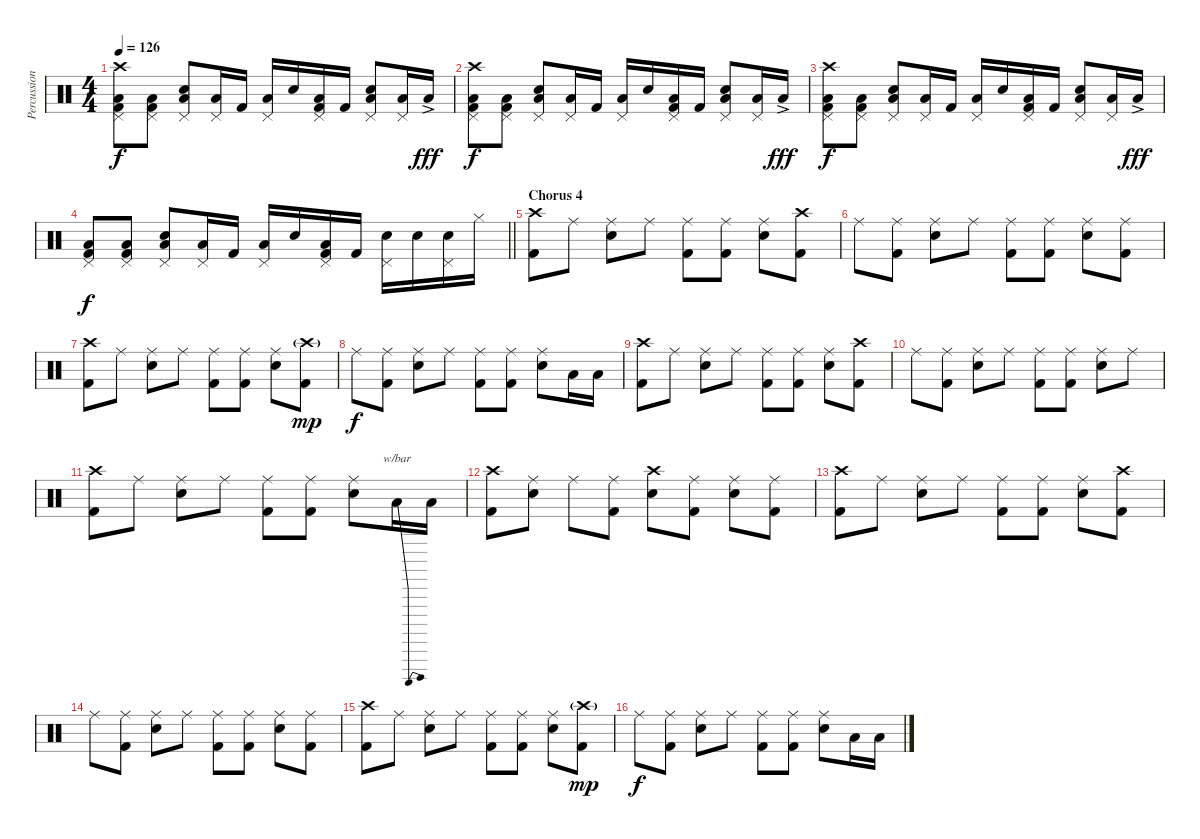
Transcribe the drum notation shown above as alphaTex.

\track ("Percussion" "Percussion") {instrument percussion}
\staff {score}
\articulation defaults
\ts (4 4)
\tempo 126
\clef neutral
\ks c
("Crash high (hit)" "Pedal Hi-Hat (hit)" "Low Floor Tom (hit)" "Kick (hit) 2").8{dy f} ("Pedal Hi-Hat (hit)" "Low Floor Tom (hit)" "Kick (hit) 2").8 ("Pedal Hi-Hat (hit)" "Snare (hit) 2" "Low Floor Tom (hit)").8 ("Pedal Hi-Hat (hit)" "Low Floor Tom (hit)").16 "Kick (hit) 2".16 ("Pedal Hi-Hat (hit)" "Low Floor Tom (hit)").16 "Snare (hit) 2".16 ("Pedal Hi-Hat (hit)" "Low Floor Tom (hit)" "Kick (hit) 2").16 "Kick (hit) 2".16 ("Pedal Hi-Hat (hit)" "Snare (hit) 2" "Low Floor Tom (hit)").8 ("Pedal Hi-Hat (hit)" "Low Floor Tom (hit)").16 "Low Floor Tom (hit)"{ac}.16{dy fff} |
("Crash high (hit)" "Pedal Hi-Hat (hit)" "Low Floor Tom (hit)" "Kick (hit) 2").8{dy f} ("Pedal Hi-Hat (hit)" "Low Floor Tom (hit)" "Kick (hit) 2").8 ("Pedal Hi-Hat (hit)" "Snare (hit) 2" "Low Floor Tom (hit)").8 ("Pedal Hi-Hat (hit)" "Low Floor Tom (hit)").16 "Kick (hit) 2".16 ("Pedal Hi-Hat (hit)" "Low Floor Tom (hit)").16 "Snare (hit) 2".16 ("Pedal Hi-Hat (hit)" "Low Floor Tom (hit)" "Kick (hit) 2").16 "Kick (hit) 2".16 ("Pedal Hi-Hat (hit)" "Snare (hit) 2" "Low Floor Tom (hit)").8 ("Pedal Hi-Hat (hit)" "Low Floor Tom (hit)").16 "Low Floor Tom (hit)"{ac}.16{dy fff} |
("Crash high (hit)" "Pedal Hi-Hat (hit)" "Low Floor Tom (hit)" "Kick (hit) 2").8{dy f} ("Pedal Hi-Hat (hit)" "Low Floor Tom (hit)" "Kick (hit) 2").8 ("Pedal Hi-Hat (hit)" "Snare (hit) 2" "Low Floor Tom (hit)").8 ("Pedal Hi-Hat (hit)" "Low Floor Tom (hit)").16 "Kick (hit) 2".16 ("Pedal Hi-Hat (hit)" "Low Floor Tom (hit)").16 "Snare (hit) 2".16 ("Pedal Hi-Hat (hit)" "Low Floor Tom (hit)" "Kick (hit) 2").16 "Kick (hit) 2".16 ("Pedal Hi-Hat (hit)" "Snare (hit) 2" "Low Floor Tom (hit)").8 ("Pedal Hi-Hat (hit)" "Low Floor Tom (hit)").16 "Low Floor Tom (hit)"{ac}.16{dy fff} |
\barLineRight lightlight
("Pedal Hi-Hat (hit)" "Low Floor Tom (hit)" "Kick (hit) 2").8{dy f} ("Pedal Hi-Hat (hit)" "Low Floor Tom (hit)" "Kick (hit) 2").8 ("Pedal Hi-Hat (hit)" "Snare (hit) 2" "Low Floor Tom (hit)").8 ("Pedal Hi-Hat (hit)" "Low Floor Tom (hit)").16 "Kick (hit) 2".16 ("Pedal Hi-Hat (hit)" "Low Floor Tom (hit)").16 "Snare (hit) 2".16 ("Pedal Hi-Hat (hit)" "Low Floor Tom (hit)" "Kick (hit) 2").16 "Kick (hit) 2".16 ("Pedal Hi-Hat (hit)" "Snare (hit) 2").16 "Snare (hit) 2".16 ("Pedal Hi-Hat (hit)" "Snare (hit) 2").16 "Hi-Hat (closed)".16 |
\section ("" "Chorus 4")
("Crash high (hit)" "Kick (hit) 2").8 "Ride (middle)".8 ("Ride (middle)" "Snare (hit) 2").8 "Ride (middle)".8 ("Ride (middle)" "Kick (hit) 2").8 ("Ride (middle)" "Kick (hit) 2").8 ("Ride (middle)" "Snare (hit) 2").8 ("Crash high (hit)" "Kick (hit) 2").8 |
"Ride (middle)".8 ("Ride (middle)" "Kick (hit) 2").8 ("Ride (middle)" "Snare (hit) 2").8 "Ride (middle)".8 ("Ride (middle)" "Kick (hit) 2").8 ("Ride (middle)" "Kick (hit) 2").8 ("Ride (middle)" "Snare (hit) 2").8 ("Ride (middle)" "Kick (hit) 2").8 |
("Crash high (hit)" "Kick (hit) 2").8 "Ride (middle)".8 ("Ride (middle)" "Snare (hit) 2").8 "Ride (middle)".8 ("Ride (middle)" "Kick (hit) 2").8 ("Ride (middle)" "Kick (hit) 2").8 ("Ride (middle)" "Snare (hit) 2").8 ("Crash high (hit)"{g} "Kick (hit) 2").8{dy mp} |
"Ride (middle)".8{dy f} ("Ride (middle)" "Kick (hit) 2").8 ("Ride (middle)" "Snare (hit) 2").8 "Ride (middle)".8 ("Ride (middle)" "Kick (hit) 2").8 ("Ride (middle)" "Kick (hit) 2").8 ("Ride (middle)" "Snare (hit) 2").8 "Low Floor Tom (hit)".16 "Low Floor Tom (hit)".16 |
("Crash high (hit)" "Kick (hit) 2").8 "Ride (middle)".8 ("Ride (middle)" "Snare (hit) 2").8 "Ride (middle)".8 ("Ride (middle)" "Kick (hit) 2").8 ("Ride (middle)" "Kick (hit) 2").8 ("Ride (middle)" "Snare (hit) 2").8 ("Crash high (hit)" "Kick (hit) 2").8 |
"Ride (middle)".8 ("Ride (middle)" "Kick (hit) 2").8 ("Ride (middle)" "Snare (hit) 2").8 "Ride (middle)".8 ("Ride (middle)" "Kick (hit) 2").8 ("Ride (middle)" "Kick (hit) 2").8 ("Ride (middle)" "Snare (hit) 2").8 "Ride (middle)".8 |
("Crash high (hit)" "Kick (hit) 2").8 "Ride (middle)".8 ("Ride (middle)" "Snare (hit) 2").8 "Ride (middle)".8 ("Ride (middle)" "Kick (hit) 2").8 ("Ride (middle)" "Kick (hit) 2").8 ("Ride (middle)" "Snare (hit) 2").8 "Low Floor Tom (hit)".16{tbe (dip default 0 0 30 -4 58 -4 60 0)} "Low Floor Tom (hit)".16 |
("Crash high (hit)" "Kick (hit) 2").8 ("Ride (middle)" "Snare (hit) 2").8 "Ride (middle)".8 ("Ride (middle)" "Kick (hit) 2").8 ("Crash high (hit)" "Snare (hit) 2").8 ("Ride (middle)" "Kick (hit) 2").8 ("Ride (middle)" "Snare (hit) 2").8 ("Ride (middle)" "Kick (hit) 2").8 |
("Crash high (hit)" "Kick (hit) 2").8 "Ride (middle)".8 ("Ride (middle)" "Snare (hit) 2").8 "Ride (middle)".8 ("Ride (middle)" "Kick (hit) 2").8 ("Ride (middle)" "Kick (hit) 2").8 ("Ride (middle)" "Snare (hit) 2").8 ("Crash high (hit)" "Kick (hit) 2").8 |
"Ride (middle)".8 ("Ride (middle)" "Kick (hit) 2").8 ("Ride (middle)" "Snare (hit) 2").8 "Ride (middle)".8 ("Ride (middle)" "Kick (hit) 2").8 ("Ride (middle)" "Kick (hit) 2").8 ("Ride (middle)" "Snare (hit) 2").8 ("Ride (middle)" "Kick (hit) 2").8 |
("Crash high (hit)" "Kick (hit) 2").8 "Ride (middle)".8 ("Ride (middle)" "Snare (hit) 2").8 "Ride (middle)".8 ("Ride (middle)" "Kick (hit) 2").8 ("Ride (middle)" "Kick (hit) 2").8 ("Ride (middle)" "Snare (hit) 2").8 ("Crash high (hit)"{g} "Kick (hit) 2").8{dy mp} |
"Ride (middle)".8{dy f} ("Ride (middle)" "Kick (hit) 2").8 ("Ride (middle)" "Snare (hit) 2").8 "Ride (middle)".8 ("Ride (middle)" "Kick (hit) 2").8 ("Ride (middle)" "Kick (hit) 2").8 ("Ride (middle)" "Snare (hit) 2").8 "Low Floor Tom (hit)".16 "Low Floor Tom (hit)".16
